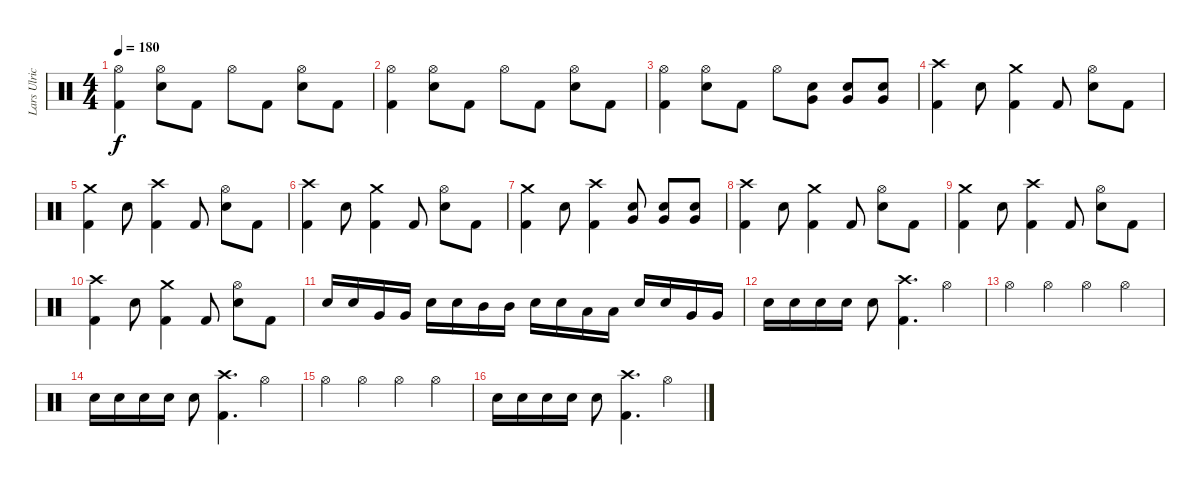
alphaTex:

\track ("Lars Ulrich" "Lars Ulric") {instrument percussion}
\staff {score}
\articulation defaults
\ts (4 4)
\tempo 180
\clef neutral
\ks c
("Hi-Hat (open)" "Kick (hit) 2").4{dy f} ("Hi-Hat (open)" "Electric Snare (hit)").8 "Kick (hit) 2".8 "Hi-Hat (open)".8 "Kick (hit) 2".8 ("Hi-Hat (open)" "Electric Snare (hit)").8 "Kick (hit) 2".8 |
("Hi-Hat (open)" "Kick (hit) 2").4 ("Hi-Hat (open)" "Electric Snare (hit)").8 "Kick (hit) 2".8 "Hi-Hat (open)".8 "Kick (hit) 2".8 ("Hi-Hat (open)" "Electric Snare (hit)").8 "Kick (hit) 2".8 |
("Hi-Hat (open)" "Kick (hit) 2").4 ("Hi-Hat (open)" "Electric Snare (hit)").8 "Kick (hit) 2".8 "Hi-Hat (open)".8 ("Very Low Tom (hit)" "Electric Snare (hit)").8 ("Very Low Tom (hit)" "Electric Snare (hit)").8 ("Very Low Tom (hit)" "Electric Snare (hit)").8 |
("Crash high (hit)" "Kick (hit) 2").4 "Electric Snare (hit)".8 ("Crash medium (hit)" "Kick (hit) 2").4 "Kick (hit) 2".8 ("Hi-Hat (open)" "Electric Snare (hit)").8 "Kick (hit) 2".8 |
("Crash medium (hit)" "Kick (hit) 2").4 "Electric Snare (hit)".8 ("Crash high (hit)" "Kick (hit) 2").4 "Kick (hit) 2".8 ("Hi-Hat (open)" "Electric Snare (hit)").8 "Kick (hit) 2".8 |
("Crash high (hit)" "Kick (hit) 2").4 "Electric Snare (hit)".8 ("Crash medium (hit)" "Kick (hit) 2").4 "Kick (hit) 2".8 ("Hi-Hat (open)" "Electric Snare (hit)").8 "Kick (hit) 2".8 |
("Crash medium (hit)" "Kick (hit) 2").4 "Electric Snare (hit)".8 ("Crash high (hit)" "Kick (hit) 2").4 ("Very Low Tom (hit)" "Electric Snare (hit)").8 ("Very Low Tom (hit)" "Electric Snare (hit)").8 ("Very Low Tom (hit)" "Electric Snare (hit)").8 |
("Crash high (hit)" "Kick (hit) 2").4 "Electric Snare (hit)".8 ("Crash medium (hit)" "Kick (hit) 2").4 "Kick (hit) 2".8 ("Hi-Hat (open)" "Electric Snare (hit)").8 "Kick (hit) 2".8 |
("Crash medium (hit)" "Kick (hit) 2").4 "Electric Snare (hit)".8 ("Crash high (hit)" "Kick (hit) 2").4 "Kick (hit) 2".8 ("Hi-Hat (open)" "Electric Snare (hit)").8 "Kick (hit) 2".8 |
("Crash high (hit)" "Kick (hit) 2").4 "Electric Snare (hit)".8 ("Crash medium (hit)" "Kick (hit) 2").4 "Kick (hit) 2".8 ("Hi-Hat (open)" "Electric Snare (hit)").8 "Kick (hit) 2".8 |
"Electric Snare (hit)".16 "Electric Snare (hit)".16 "Very Low Tom (hit)".16 "Very Low Tom (hit)".16 "Electric Snare (hit)".16 "Electric Snare (hit)".16 "Mid Tom (hit)".16 "Mid Tom (hit)".16 "Electric Snare (hit)".16 "Electric Snare (hit)".16 "Low Tom (hit)".16 "Low Tom (hit)".16 "Electric Snare (hit)".16 "Electric Snare (hit)".16 "Very Low Tom (hit)".16 "Very Low Tom (hit)".16 |
"Electric Snare (hit)".16 "Electric Snare (hit)".16 "Electric Snare (hit)".16 "Electric Snare (hit)".16 "Electric Snare (hit)".8 ("Crash high (hit)" "Kick (hit) 2").4{d} "Hi-Hat (open)".4 |
"Hi-Hat (open)".4 "Hi-Hat (open)".4 "Hi-Hat (open)".4 "Hi-Hat (open)".4 |
"Electric Snare (hit)".16 "Electric Snare (hit)".16 "Electric Snare (hit)".16 "Electric Snare (hit)".16 "Electric Snare (hit)".8 ("Crash high (hit)" "Kick (hit) 2").4{d} "Hi-Hat (open)".4 |
"Hi-Hat (open)".4 "Hi-Hat (open)".4 "Hi-Hat (open)".4 "Hi-Hat (open)".4 |
"Electric Snare (hit)".16 "Electric Snare (hit)".16 "Electric Snare (hit)".16 "Electric Snare (hit)".16 "Electric Snare (hit)".8 ("Crash high (hit)" "Kick (hit) 2").4{d} "Hi-Hat (open)".4
